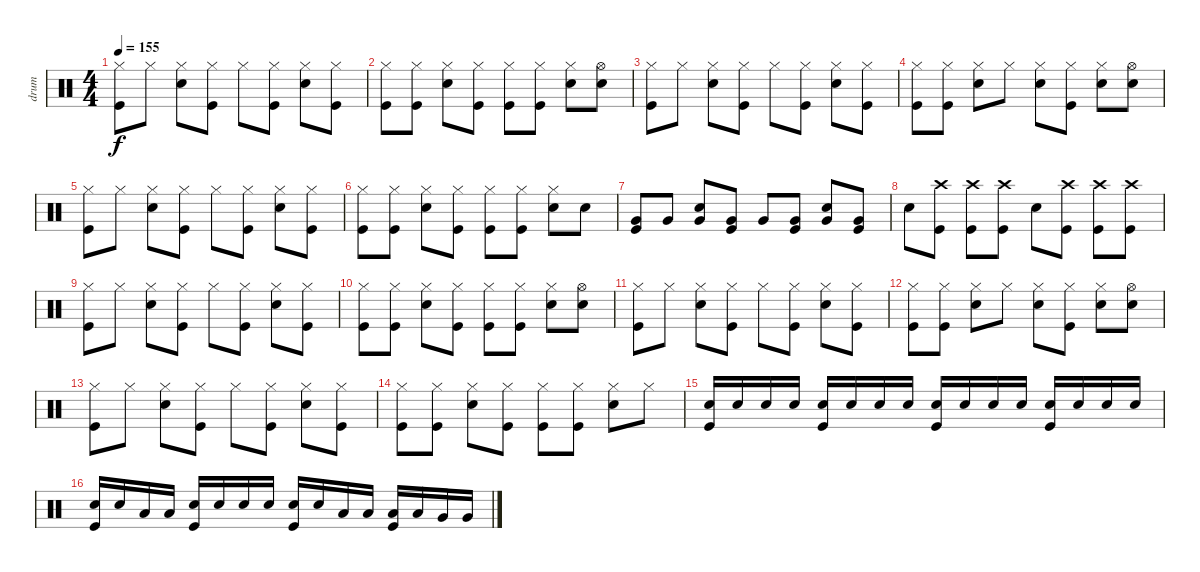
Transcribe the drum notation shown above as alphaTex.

\track ("drum" "drum") {instrument percussion}
\staff {score}
\articulation defaults
\ts (4 4)
\tempo 155
\clef neutral
\ks c
("Hi-Hat (closed)" "Kick (hit)").8{dy f} "Hi-Hat (closed)".8 ("Hi-Hat (closed)" "Snare (hit) 2").8 ("Hi-Hat (closed)" "Kick (hit)").8 "Hi-Hat (closed)".8 ("Hi-Hat (closed)" "Kick (hit)").8 ("Hi-Hat (closed)" "Snare (hit) 2").8 ("Hi-Hat (closed)" "Kick (hit)").8 |
("Hi-Hat (closed)" "Kick (hit)").8 ("Hi-Hat (closed)" "Kick (hit)").8 ("Hi-Hat (closed)" "Snare (hit) 2").8 ("Hi-Hat (closed)" "Kick (hit)").8 ("Hi-Hat (closed)" "Kick (hit)").8 ("Hi-Hat (closed)" "Kick (hit)").8 ("Hi-Hat (closed)" "Snare (hit) 2").8 ("Hi-Hat (open)" "Snare (hit) 2").8 |
("Hi-Hat (closed)" "Kick (hit)").8 "Hi-Hat (closed)".8 ("Hi-Hat (closed)" "Snare (hit) 2").8 ("Hi-Hat (closed)" "Kick (hit)").8 "Hi-Hat (closed)".8 ("Hi-Hat (closed)" "Kick (hit)").8 ("Hi-Hat (closed)" "Snare (hit) 2").8 ("Hi-Hat (closed)" "Kick (hit)").8 |
("Hi-Hat (closed)" "Kick (hit)").8 ("Hi-Hat (closed)" "Kick (hit)").8 ("Hi-Hat (closed)" "Snare (hit) 2").8 "Hi-Hat (closed)".8 ("Hi-Hat (closed)" "Snare (hit) 2").8 ("Hi-Hat (closed)" "Kick (hit)").8 ("Hi-Hat (closed)" "Snare (hit) 2").8 ("Hi-Hat (open)" "Snare (hit) 2").8 |
("Hi-Hat (closed)" "Kick (hit)").8 "Hi-Hat (closed)".8 ("Hi-Hat (closed)" "Snare (hit) 2").8 ("Hi-Hat (closed)" "Kick (hit)").8 "Hi-Hat (closed)".8 ("Hi-Hat (closed)" "Kick (hit)").8 ("Hi-Hat (closed)" "Snare (hit) 2").8 ("Hi-Hat (closed)" "Kick (hit)").8 |
("Hi-Hat (closed)" "Kick (hit)").8 ("Hi-Hat (closed)" "Kick (hit)").8 ("Hi-Hat (closed)" "Snare (hit) 2").8 ("Hi-Hat (closed)" "Kick (hit)").8 ("Hi-Hat (closed)" "Kick (hit)").8 ("Hi-Hat (closed)" "Kick (hit)").8 ("Hi-Hat (closed)" "Snare (hit) 2").8 "Snare (hit) 2".8 |
("Very Low Tom (hit)" "Kick (hit)").8 "Very Low Tom (hit)".8 ("Snare (hit) 2" "Very Low Tom (hit)").8 ("Very Low Tom (hit)" "Kick (hit)").8 "Very Low Tom (hit)".8 ("Very Low Tom (hit)" "Kick (hit)").8 ("Snare (hit) 2" "Very Low Tom (hit)").8 ("Very Low Tom (hit)" "Kick (hit)").8 |
"Snare (hit) 2".8 ("Crash high (hit)" "Kick (hit)").8 ("Crash high (hit)" "Kick (hit)").8 ("Crash high (hit)" "Kick (hit)").8 "Snare (hit) 2".8 ("Crash high (hit)" "Kick (hit)").8 ("Crash high (hit)" "Kick (hit)").8 ("Crash high (hit)" "Kick (hit)").8 |
("Hi-Hat (closed)" "Kick (hit)").8 "Hi-Hat (closed)".8 ("Hi-Hat (closed)" "Snare (hit) 2").8 ("Hi-Hat (closed)" "Kick (hit)").8 "Hi-Hat (closed)".8 ("Hi-Hat (closed)" "Kick (hit)").8 ("Hi-Hat (closed)" "Snare (hit) 2").8 ("Hi-Hat (closed)" "Kick (hit)").8 |
("Hi-Hat (closed)" "Kick (hit)").8 ("Hi-Hat (closed)" "Kick (hit)").8 ("Hi-Hat (closed)" "Snare (hit) 2").8 ("Hi-Hat (closed)" "Kick (hit)").8 ("Hi-Hat (closed)" "Kick (hit)").8 ("Hi-Hat (closed)" "Kick (hit)").8 ("Hi-Hat (closed)" "Snare (hit) 2").8 ("Hi-Hat (open)" "Snare (hit) 2").8 |
("Hi-Hat (closed)" "Kick (hit)").8 "Hi-Hat (closed)".8 ("Hi-Hat (closed)" "Snare (hit) 2").8 ("Hi-Hat (closed)" "Kick (hit)").8 "Hi-Hat (closed)".8 ("Hi-Hat (closed)" "Kick (hit)").8 ("Hi-Hat (closed)" "Snare (hit) 2").8 ("Hi-Hat (closed)" "Kick (hit)").8 |
("Hi-Hat (closed)" "Kick (hit)").8 ("Hi-Hat (closed)" "Kick (hit)").8 ("Hi-Hat (closed)" "Snare (hit) 2").8 "Hi-Hat (closed)".8 ("Hi-Hat (closed)" "Snare (hit) 2").8 ("Hi-Hat (closed)" "Kick (hit)").8 ("Hi-Hat (closed)" "Snare (hit) 2").8 ("Hi-Hat (open)" "Snare (hit) 2").8 |
("Hi-Hat (closed)" "Kick (hit)").8 "Hi-Hat (closed)".8 ("Hi-Hat (closed)" "Snare (hit) 2").8 ("Hi-Hat (closed)" "Kick (hit)").8 "Hi-Hat (closed)".8 ("Hi-Hat (closed)" "Kick (hit)").8 ("Hi-Hat (closed)" "Snare (hit) 2").8 ("Hi-Hat (closed)" "Kick (hit)").8 |
("Hi-Hat (closed)" "Kick (hit)").8 ("Hi-Hat (closed)" "Kick (hit)").8 ("Hi-Hat (closed)" "Snare (hit) 2").8 ("Hi-Hat (closed)" "Kick (hit)").8 ("Hi-Hat (closed)" "Kick (hit)").8 ("Hi-Hat (closed)" "Kick (hit)").8 ("Hi-Hat (closed)" "Snare (hit) 2").8 "Hi-Hat (closed)".8 |
("Snare (hit) 2" "Kick (hit)").16 "Snare (hit) 2".16 "Snare (hit) 2".16 "Snare (hit) 2".16 ("Snare (hit) 2" "Kick (hit)").16 "Snare (hit) 2".16 "Snare (hit) 2".16 "Snare (hit) 2".16 ("Snare (hit) 2" "Kick (hit)").16 "Snare (hit) 2".16 "Snare (hit) 2".16 "Snare (hit) 2".16 ("Snare (hit) 2" "Kick (hit)").16 "Snare (hit) 2".16 "Snare (hit) 2".16 "Snare (hit) 2".16 |
("Snare (hit) 2" "Kick (hit)").16 "Snare (hit) 2".16 "Low Tom (hit)".16 "Low Tom (hit)".16 ("Snare (hit) 2" "Kick (hit)").16 "Snare (hit) 2".16 "Snare (hit) 2".16 "Snare (hit) 2".16 ("Snare (hit) 2" "Kick (hit)").16 "Snare (hit) 2".16 "Low Tom (hit)".16 "Low Tom (hit)".16 ("Low Tom (hit)" "Kick (hit)").16 "Low Tom (hit)".16 "Very Low Tom (hit)".16 "Very Low Tom (hit)".16
